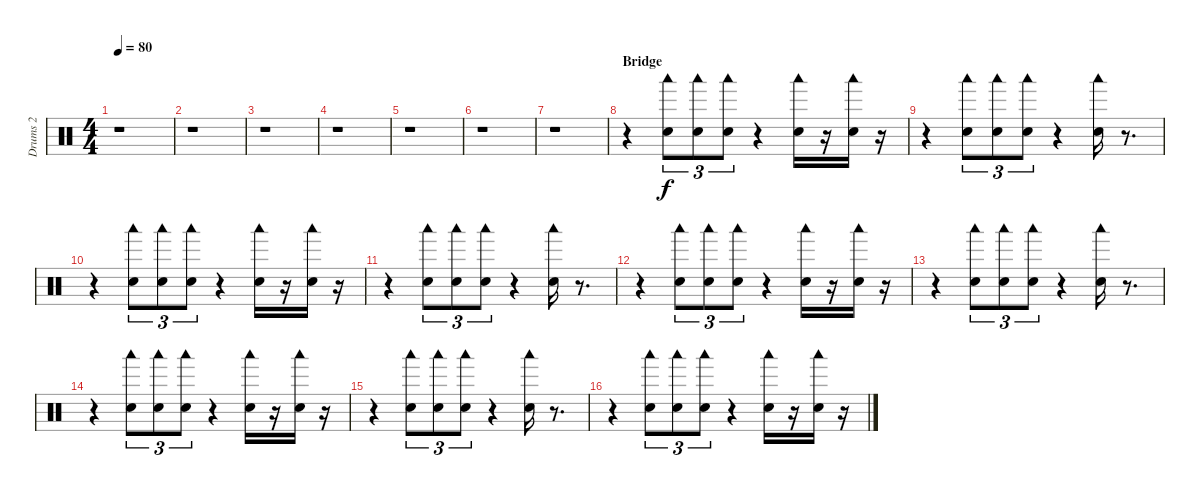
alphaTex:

\track ("Drums 2" "Drums 2") {instrument percussion}
\staff {score}
\articulation defaults
\ts (4 4)
\tempo 80
\clef neutral
\ks c
r.1{dy f} |
r.1 |
r.1 |
r.1 |
r.1 |
r.1 |
r.1 |
\section ("" "Bridge")
r.4 ("Woodblock low (hit)" "Electric Snare (hit)").8{tu (3 2)} ("Woodblock low (hit)" "Electric Snare (hit)").8{tu (3 2)} ("Woodblock low (hit)" "Electric Snare (hit)").8{tu (3 2)} r.4 ("Woodblock low (hit)" "Electric Snare (hit)").16 r.16 ("Woodblock low (hit)" "Electric Snare (hit)").16 r.16 |
r.4 ("Woodblock low (hit)" "Electric Snare (hit)").8{tu (3 2)} ("Woodblock low (hit)" "Electric Snare (hit)").8{tu (3 2)} ("Woodblock low (hit)" "Electric Snare (hit)").8{tu (3 2)} r.4 ("Woodblock low (hit)" "Electric Snare (hit)").16 r.8{d} |
r.4 ("Woodblock low (hit)" "Electric Snare (hit)").8{tu (3 2)} ("Woodblock low (hit)" "Electric Snare (hit)").8{tu (3 2)} ("Woodblock low (hit)" "Electric Snare (hit)").8{tu (3 2)} r.4 ("Woodblock low (hit)" "Electric Snare (hit)").16 r.16 ("Woodblock low (hit)" "Electric Snare (hit)").16 r.16 |
r.4 ("Woodblock low (hit)" "Electric Snare (hit)").8{tu (3 2)} ("Woodblock low (hit)" "Electric Snare (hit)").8{tu (3 2)} ("Woodblock low (hit)" "Electric Snare (hit)").8{tu (3 2)} r.4 ("Woodblock low (hit)" "Electric Snare (hit)").16 r.8{d} |
r.4 ("Woodblock low (hit)" "Electric Snare (hit)").8{tu (3 2)} ("Woodblock low (hit)" "Electric Snare (hit)").8{tu (3 2)} ("Woodblock low (hit)" "Electric Snare (hit)").8{tu (3 2)} r.4 ("Woodblock low (hit)" "Electric Snare (hit)").16 r.16 ("Woodblock low (hit)" "Electric Snare (hit)").16 r.16 |
r.4 ("Woodblock low (hit)" "Electric Snare (hit)").8{tu (3 2)} ("Woodblock low (hit)" "Electric Snare (hit)").8{tu (3 2)} ("Woodblock low (hit)" "Electric Snare (hit)").8{tu (3 2)} r.4 ("Woodblock low (hit)" "Electric Snare (hit)").16 r.8{d} |
r.4 ("Woodblock low (hit)" "Electric Snare (hit)").8{tu (3 2)} ("Woodblock low (hit)" "Electric Snare (hit)").8{tu (3 2)} ("Woodblock low (hit)" "Electric Snare (hit)").8{tu (3 2)} r.4 ("Woodblock low (hit)" "Electric Snare (hit)").16 r.16 ("Woodblock low (hit)" "Electric Snare (hit)").16 r.16 |
r.4 ("Woodblock low (hit)" "Electric Snare (hit)").8{tu (3 2)} ("Woodblock low (hit)" "Electric Snare (hit)").8{tu (3 2)} ("Woodblock low (hit)" "Electric Snare (hit)").8{tu (3 2)} r.4 ("Woodblock low (hit)" "Electric Snare (hit)").16 r.8{d} |
r.4 ("Woodblock low (hit)" "Electric Snare (hit)").8{tu (3 2)} ("Woodblock low (hit)" "Electric Snare (hit)").8{tu (3 2)} ("Woodblock low (hit)" "Electric Snare (hit)").8{tu (3 2)} r.4 ("Woodblock low (hit)" "Electric Snare (hit)").16 r.16 ("Woodblock low (hit)" "Electric Snare (hit)").16 r.16
